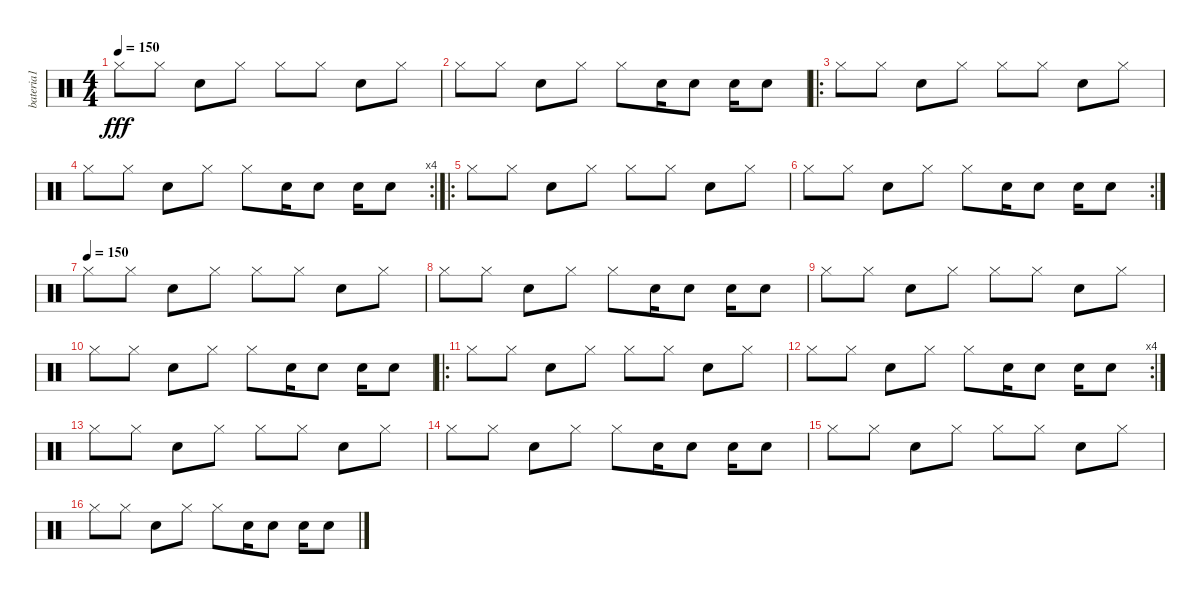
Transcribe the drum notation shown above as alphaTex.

\track ("bateria1" "bateria1") {instrument percussion}
\staff {score}
\articulation defaults
\ts (4 4)
\tempo 150
\clef neutral
\ks c "Hi-Hat (closed)".8{dy fff} "Hi-Hat (closed)".8 "Electric Snare (hit)".8 "Hi-Hat (closed)".8 "Hi-Hat (closed)".8 "Hi-Hat (closed)".8 "Electric Snare (hit)".8 "Hi-Hat (closed)".8
|
"Hi-Hat (closed)".8 "Hi-Hat (closed)".8 "Electric Snare (hit)".8 "Hi-Hat (closed)".8 "Hi-Hat (closed)".8 "Electric Snare (hit)".16 "Electric Snare (hit)".8 "Electric Snare (hit)".16 "Electric Snare (hit)".8 |
\ro "Hi-Hat (closed)".8 "Hi-Hat (closed)".8 "Electric Snare (hit)".8 "Hi-Hat (closed)".8 "Hi-Hat (closed)".8 "Hi-Hat (closed)".8 "Electric Snare (hit)".8 "Hi-Hat (closed)".8
|
\rc 4 "Hi-Hat (closed)".8 "Hi-Hat (closed)".8 "Electric Snare (hit)".8 "Hi-Hat (closed)".8 "Hi-Hat (closed)".8 "Electric Snare (hit)".16 "Electric Snare (hit)".8 "Electric Snare (hit)".16 "Electric Snare (hit)".8
|
\ro "Hi-Hat (closed)".8 "Hi-Hat (closed)".8 "Electric Snare (hit)".8 "Hi-Hat (closed)".8 "Hi-Hat (closed)".8 "Hi-Hat (closed)".8 "Electric Snare (hit)".8 "Hi-Hat (closed)".8
|
\rc 2 "Hi-Hat (closed)".8 "Hi-Hat (closed)".8 "Electric Snare (hit)".8 "Hi-Hat (closed)".8 "Hi-Hat (closed)".8 "Electric Snare (hit)".16 "Electric Snare (hit)".8 "Electric Snare (hit)".16 "Electric Snare (hit)".8
|
\tempo (150)
"Hi-Hat (closed)".8 "Hi-Hat (closed)".8 "Electric Snare (hit)".8 "Hi-Hat (closed)".8 "Hi-Hat (closed)".8 "Hi-Hat (closed)".8 "Electric Snare (hit)".8 "Hi-Hat (closed)".8 |
"Hi-Hat (closed)".8 "Hi-Hat (closed)".8 "Electric Snare (hit)".8 "Hi-Hat (closed)".8 "Hi-Hat (closed)".8 "Electric Snare (hit)".16 "Electric Snare (hit)".8 "Electric Snare (hit)".16 "Electric Snare (hit)".8 |
"Hi-Hat (closed)".8 "Hi-Hat (closed)".8 "Electric Snare (hit)".8 "Hi-Hat (closed)".8 "Hi-Hat (closed)".8 "Hi-Hat (closed)".8 "Electric Snare (hit)".8 "Hi-Hat (closed)".8 |
"Hi-Hat (closed)".8 "Hi-Hat (closed)".8 "Electric Snare (hit)".8 "Hi-Hat (closed)".8 "Hi-Hat (closed)".8 "Electric Snare (hit)".16 "Electric Snare (hit)".8 "Electric Snare (hit)".16 "Electric Snare (hit)".8 |
\ro "Hi-Hat (closed)".8 "Hi-Hat (closed)".8 "Electric Snare (hit)".8 "Hi-Hat (closed)".8 "Hi-Hat (closed)".8 "Hi-Hat (closed)".8 "Electric Snare (hit)".8 "Hi-Hat (closed)".8
|
\rc 4 "Hi-Hat (closed)".8 "Hi-Hat (closed)".8 "Electric Snare (hit)".8 "Hi-Hat (closed)".8 "Hi-Hat (closed)".8 "Electric Snare (hit)".16 "Electric Snare (hit)".8 "Electric Snare (hit)".16 "Electric Snare (hit)".8
|
"Hi-Hat (closed)".8 "Hi-Hat (closed)".8 "Electric Snare (hit)".8 "Hi-Hat (closed)".8 "Hi-Hat (closed)".8 "Hi-Hat (closed)".8 "Electric Snare (hit)".8 "Hi-Hat (closed)".8 |
"Hi-Hat (closed)".8 "Hi-Hat (closed)".8 "Electric Snare (hit)".8 "Hi-Hat (closed)".8 "Hi-Hat (closed)".8 "Electric Snare (hit)".16 "Electric Snare (hit)".8 "Electric Snare (hit)".16 "Electric Snare (hit)".8 |
"Hi-Hat (closed)".8 "Hi-Hat (closed)".8 "Electric Snare (hit)".8 "Hi-Hat (closed)".8 "Hi-Hat (closed)".8 "Hi-Hat (closed)".8 "Electric Snare (hit)".8 "Hi-Hat (closed)".8 |
"Hi-Hat (closed)".8 "Hi-Hat (closed)".8 "Electric Snare (hit)".8 "Hi-Hat (closed)".8 "Hi-Hat (closed)".8 "Electric Snare (hit)".16 "Electric Snare (hit)".8 "Electric Snare (hit)".16 "Electric Snare (hit)".8
